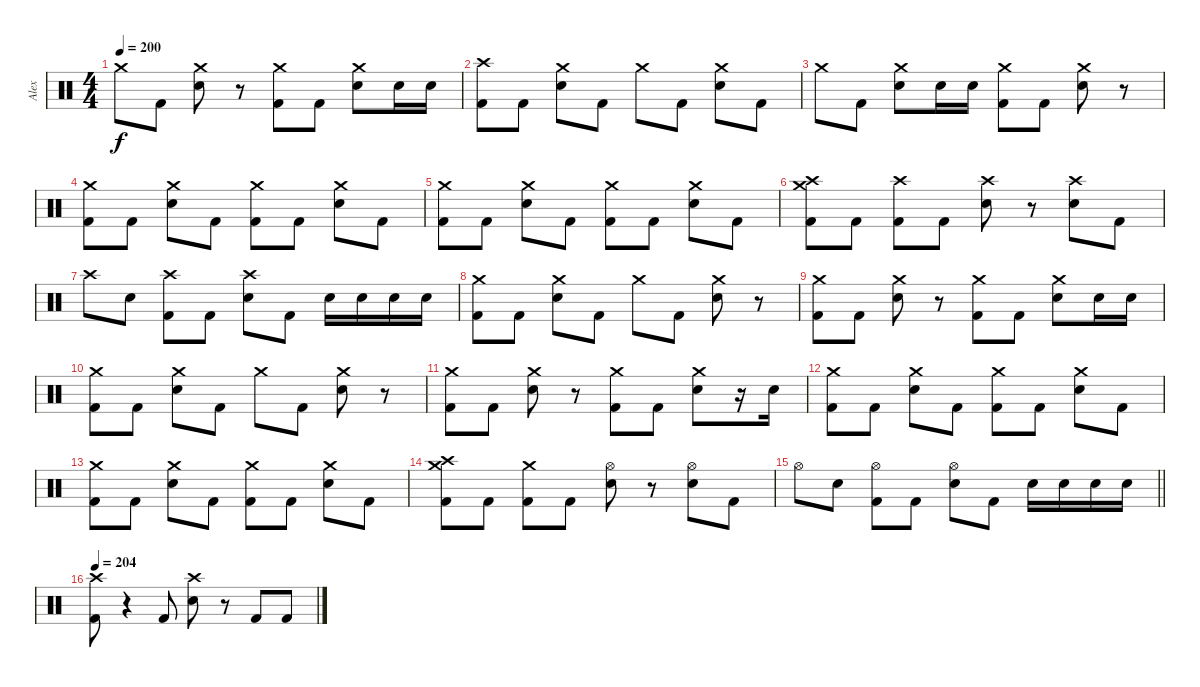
\track ("Alex" "Alex") {instrument percussion}
\staff {score}
\articulation defaults
\ts (4 4)
\tempo 200
\clef neutral
\ks c "Crash medium (hit)".8{dy f} "Kick (hit) 2".8
("Crash medium (hit)" "Electric Snare (hit)").8 r.8 ("Crash medium (hit)" "Kick (hit) 2").8 "Kick (hit) 2".8 ("Crash medium (hit)" "Electric Snare (hit)").8 "Electric Snare (hit)".16 "Electric Snare (hit)".16 |
("Crash high (hit)" "Kick (hit) 2").8 "Kick (hit) 2".8 ("Crash medium (hit)" "Electric Snare (hit)").8 "Kick (hit) 2".8 "Crash medium (hit)".8 "Kick (hit) 2".8 ("Crash medium (hit)" "Electric Snare (hit)").8 "Kick (hit) 2".8 |
"Crash medium (hit)".8 "Kick (hit) 2".8 ("Crash medium (hit)" "Electric Snare (hit)").8 "Electric Snare (hit)".16 "Electric Snare (hit)".16 ("Crash medium (hit)" "Kick (hit) 2").8 "Kick (hit) 2".8 ("Crash medium (hit)" "Electric Snare (hit)").8 r.8 |
("Crash medium (hit)" "Kick (hit) 2").8 "Kick (hit) 2".8 ("Crash medium (hit)" "Electric Snare (hit)").8 "Kick (hit) 2".8 ("Crash medium (hit)" "Kick (hit) 2").8 "Kick (hit) 2".8 ("Crash medium (hit)" "Electric Snare (hit)").8 "Kick (hit) 2".8 |
("Crash medium (hit)" "Kick (hit) 2").8 "Kick (hit) 2".8 ("Crash medium (hit)" "Electric Snare (hit)").8 "Kick (hit) 2".8 ("Crash medium (hit)" "Kick (hit) 2").8 "Kick (hit) 2".8 ("Crash medium (hit)" "Electric Snare (hit)").8 "Kick (hit) 2".8 |
("Crash medium (hit)" "Crash high (hit)" "Kick (hit) 2").8 "Kick (hit) 2".8 ("Crash high (hit)" "Kick (hit) 2").8 "Kick (hit) 2".8 ("Crash high (hit)" "Electric Snare (hit)").8 r.8 ("Crash high (hit)" "Electric Snare (hit)").8 "Kick (hit) 2".8 |
"Crash high (hit)".8 "Electric Snare (hit)".8 ("Crash high (hit)" "Kick (hit) 2").8 "Kick (hit) 2".8 ("Crash high (hit)" "Electric Snare (hit)").8 "Kick (hit) 2".8 "Electric Snare (hit)".16 "Electric Snare (hit)".16 "Electric Snare (hit)".16 "Electric Snare (hit)".16 |
("Crash medium (hit)" "Kick (hit) 2").8 "Kick (hit) 2".8 ("Crash medium (hit)" "Electric Snare (hit)").8 "Kick (hit) 2".8 "Crash medium (hit)".8 "Kick (hit) 2".8 ("Crash medium (hit)" "Electric Snare (hit)").8 r.8 |
("Crash medium (hit)" "Kick (hit) 2").8 "Kick (hit) 2".8 ("Crash medium (hit)" "Electric Snare (hit)").8 r.8 ("Crash medium (hit)" "Kick (hit) 2").8 "Kick (hit) 2".8 ("Crash medium (hit)" "Electric Snare (hit)").8 "Electric Snare (hit)".16 "Electric Snare (hit)".16 |
("Crash medium (hit)" "Kick (hit) 2").8 "Kick (hit) 2".8 ("Crash medium (hit)" "Electric Snare (hit)").8 "Kick (hit) 2".8 "Crash medium (hit)".8 "Kick (hit) 2".8 ("Crash medium (hit)" "Electric Snare (hit)").8 r.8 |
("Crash medium (hit)" "Kick (hit) 2").8 "Kick (hit) 2".8 ("Crash medium (hit)" "Electric Snare (hit)").8 r.8 ("Crash medium (hit)" "Kick (hit) 2").8 "Kick (hit) 2".8 ("Crash medium (hit)" "Electric Snare (hit)").8 r.16 "Electric Snare (hit)".16 |
("Crash medium (hit)" "Kick (hit) 2").8 "Kick (hit) 2".8 ("Crash medium (hit)" "Electric Snare (hit)").8 "Kick (hit) 2".8 ("Crash medium (hit)" "Kick (hit) 2").8 "Kick (hit) 2".8 ("Crash medium (hit)" "Electric Snare (hit)").8 "Kick (hit) 2".8 |
("Crash medium (hit)" "Kick (hit) 2").8 "Kick (hit) 2".8 ("Crash medium (hit)" "Electric Snare (hit)").8 "Kick (hit) 2".8 ("Crash medium (hit)" "Kick (hit) 2").8 "Kick (hit) 2".8 ("Crash medium (hit)" "Electric Snare (hit)").8 "Kick (hit) 2".8 |
("Crash medium (hit)" "Crash high (hit)" "Kick (hit) 2").8 "Kick (hit) 2".8 ("Crash medium (hit)" "Kick (hit) 2").8 "Kick (hit) 2".8 ("Hi-Hat (open)" "Electric Snare (hit)").8 r.8 ("Hi-Hat (open)" "Electric Snare (hit)").8 "Kick (hit) 2".8 |
\barLineRight lightlight "Hi-Hat (open)".8 "Electric Snare (hit)".8
("Hi-Hat (open)" "Kick (hit) 2").8 "Kick (hit) 2".8 ("Hi-Hat (open)" "Electric Snare (hit)").8 "Kick (hit) 2".8 "Electric Snare (hit)".16 "Electric Snare (hit)".16 "Electric Snare (hit)".16 "Electric Snare (hit)".16 |
\tempo 204
("Crash high (hit)" "Kick (hit) 2").8 r.4 "Kick (hit) 2".8 ("Crash high (hit)" "Electric Snare (hit)").8 r.8 "Kick (hit) 2".8 "Kick (hit) 2".8
